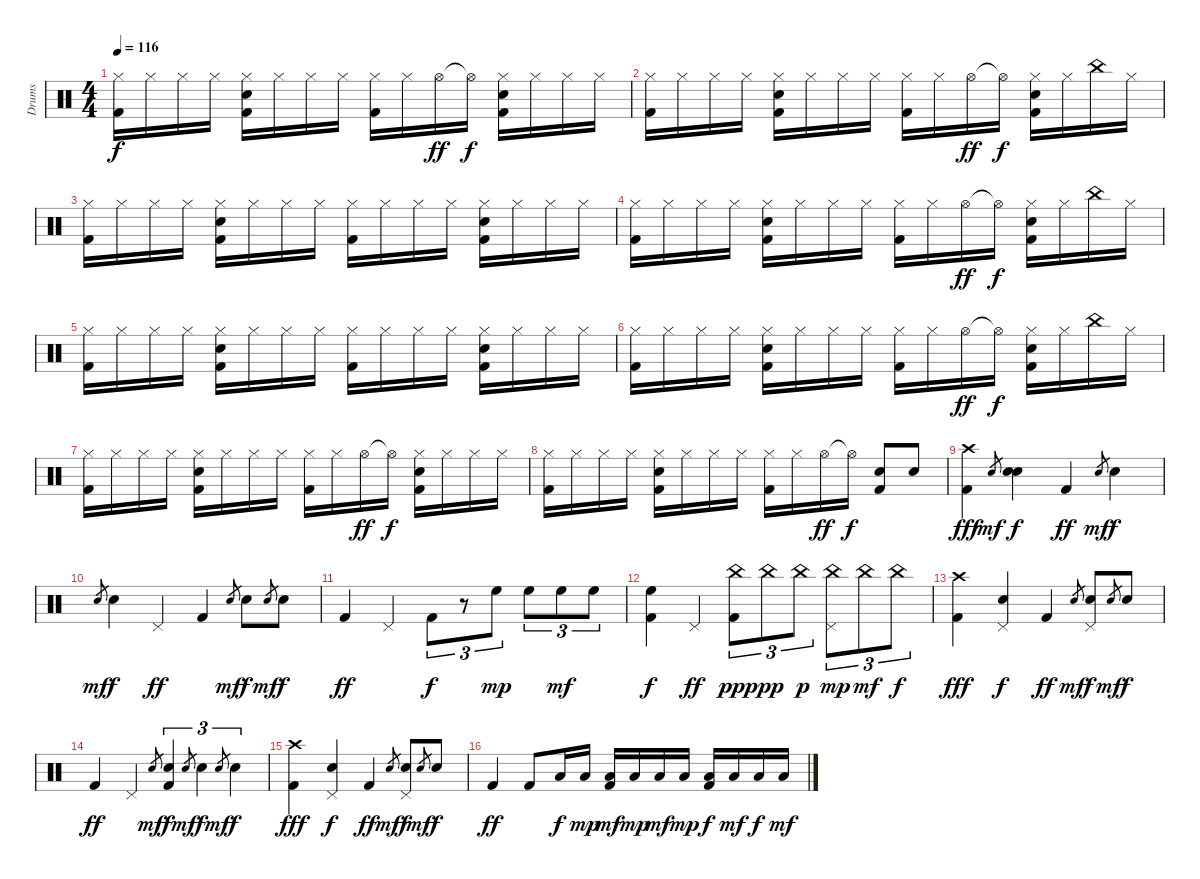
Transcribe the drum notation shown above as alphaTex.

\track ("Drums" "Drums") {instrument percussion}
\staff {score}
\articulation defaults
\ts (4 4)
\tempo 116
\clef neutral
\ks c
("Hi-Hat (closed)" "Kick (hit) 2").16{dy f} "Hi-Hat (closed)".16 "Hi-Hat (closed)".16 "Hi-Hat (closed)".16 ("Hi-Hat (closed)" "Snare (hit) 2" "Kick (hit) 2").16 "Hi-Hat (closed)".16 "Hi-Hat (closed)".16 "Hi-Hat (closed)".16 ("Hi-Hat (closed)" "Kick (hit) 2").16 "Hi-Hat (closed)".16 "Hi-Hat (open)".16{dy ff} "Hi-Hat (open)"{t}.16{dy f} ("Hi-Hat (closed)" "Snare (hit) 2" "Kick (hit) 2").16 "Hi-Hat (closed)".16 "Hi-Hat (closed)".16 "Hi-Hat (closed)".16 |
("Hi-Hat (closed)" "Kick (hit) 2").16 "Hi-Hat (closed)".16 "Hi-Hat (closed)".16 "Hi-Hat (closed)".16 ("Hi-Hat (closed)" "Snare (hit) 2" "Kick (hit) 2").16 "Hi-Hat (closed)".16 "Hi-Hat (closed)".16 "Hi-Hat (closed)".16 ("Hi-Hat (closed)" "Kick (hit) 2").16 "Hi-Hat (closed)".16 "Hi-Hat (open)".16{dy ff} "Hi-Hat (open)"{t}.16{dy f} ("Hi-Hat (closed)" "Snare (hit) 2" "Kick (hit) 2").16 "Hi-Hat (closed)".16 "China (hit)".16 "Hi-Hat (closed)".16 |
("Hi-Hat (closed)" "Kick (hit) 2").16 "Hi-Hat (closed)".16 "Hi-Hat (closed)".16 "Hi-Hat (closed)".16 ("Hi-Hat (closed)" "Snare (hit) 2" "Kick (hit) 2").16 "Hi-Hat (closed)".16 "Hi-Hat (closed)".16 "Hi-Hat (closed)".16 ("Hi-Hat (closed)" "Kick (hit) 2").16 "Hi-Hat (closed)".16 "Hi-Hat (closed)".16 "Hi-Hat (closed)".16 ("Hi-Hat (closed)" "Snare (hit) 2" "Kick (hit) 2").16 "Hi-Hat (closed)".16 "Hi-Hat (closed)".16 "Hi-Hat (closed)".16 |
("Hi-Hat (closed)" "Kick (hit) 2").16 "Hi-Hat (closed)".16 "Hi-Hat (closed)".16 "Hi-Hat (closed)".16 ("Hi-Hat (closed)" "Snare (hit) 2" "Kick (hit) 2").16 "Hi-Hat (closed)".16 "Hi-Hat (closed)".16 "Hi-Hat (closed)".16 ("Hi-Hat (closed)" "Kick (hit) 2").16 "Hi-Hat (closed)".16 "Hi-Hat (open)".16{dy ff} "Hi-Hat (open)"{t}.16{dy f} ("Hi-Hat (closed)" "Snare (hit) 2" "Kick (hit) 2").16 "Hi-Hat (closed)".16 "China (hit)".16 "Hi-Hat (closed)".16 |
("Hi-Hat (closed)" "Kick (hit) 2").16 "Hi-Hat (closed)".16 "Hi-Hat (closed)".16 "Hi-Hat (closed)".16 ("Hi-Hat (closed)" "Snare (hit) 2" "Kick (hit) 2").16 "Hi-Hat (closed)".16 "Hi-Hat (closed)".16 "Hi-Hat (closed)".16 ("Hi-Hat (closed)" "Kick (hit) 2").16 "Hi-Hat (closed)".16 "Hi-Hat (closed)".16 "Hi-Hat (closed)".16 ("Hi-Hat (closed)" "Snare (hit) 2" "Kick (hit) 2").16 "Hi-Hat (closed)".16 "Hi-Hat (closed)".16 "Hi-Hat (closed)".16 |
("Hi-Hat (closed)" "Kick (hit) 2").16 "Hi-Hat (closed)".16 "Hi-Hat (closed)".16 "Hi-Hat (closed)".16 ("Hi-Hat (closed)" "Snare (hit) 2" "Kick (hit) 2").16 "Hi-Hat (closed)".16 "Hi-Hat (closed)".16 "Hi-Hat (closed)".16 ("Hi-Hat (closed)" "Kick (hit) 2").16 "Hi-Hat (closed)".16 "Hi-Hat (open)".16{dy ff} "Hi-Hat (open)"{t}.16{dy f} ("Hi-Hat (closed)" "Snare (hit) 2" "Kick (hit) 2").16 "Hi-Hat (closed)".16 "China (hit)".16 "Hi-Hat (closed)".16 |
("Hi-Hat (closed)" "Kick (hit) 2").16 "Hi-Hat (closed)".16 "Hi-Hat (closed)".16 "Hi-Hat (closed)".16 ("Hi-Hat (closed)" "Snare (hit) 2" "Kick (hit) 2").16 "Hi-Hat (closed)".16 "Hi-Hat (closed)".16 "Hi-Hat (closed)".16 ("Hi-Hat (closed)" "Kick (hit) 2").16 "Hi-Hat (closed)".16 "Hi-Hat (open)".16{dy ff} "Hi-Hat (open)"{t}.16{dy f} ("Hi-Hat (closed)" "Snare (hit) 2" "Kick (hit) 2").16 "Hi-Hat (closed)".16 "Hi-Hat (closed)".16 "Hi-Hat (closed)".16 |
("Hi-Hat (closed)" "Kick (hit) 2").16 "Hi-Hat (closed)".16 "Hi-Hat (closed)".16 "Hi-Hat (closed)".16 ("Hi-Hat (closed)" "Snare (hit) 2" "Kick (hit) 2").16 "Hi-Hat (closed)".16 "Hi-Hat (closed)".16 "Hi-Hat (closed)".16 ("Hi-Hat (closed)" "Kick (hit) 2").16 "Hi-Hat (closed)".16 "Hi-Hat (open)".16{dy ff} "Hi-Hat (open)"{t}.16{dy f} ("Snare (hit) 2" "Kick (hit) 2").8 "Snare (hit) 2".8 |
("Crash high (hit)" "Kick (hit) 2").4{dy fff} "Snare (hit)".8{gr dy mf} ("Snare (hit)" "Snare (hit) 2").4{dy f} "Kick (hit) 2".4{dy ff} "Snare (hit)".8{gr dy mf} "Snare (hit) 2".4{dy f} |
"Snare (hit)".8{gr dy mf} "Snare (hit) 2".4{dy f} "Pedal Hi-Hat (hit)".4{dy ff} "Kick (hit) 2".4 "Snare (hit)".8{gr dy mf} "Snare (hit) 2".8{dy f} "Snare (hit)".8{gr dy mf} "Snare (hit) 2".8{dy f} |
"Kick (hit) 2".4{dy ff} "Pedal Hi-Hat (hit)".4 "Kick (hit) 2".8{tu (3 2) dy f} r.8{tu (3 2)} "High Floor Tom (hit)".8{tu (3 2) dy mp} "High Floor Tom (hit)".8{tu (3 2)} "High Floor Tom (hit)".8{tu (3 2) dy mf} "High Floor Tom (hit)".8{tu (3 2)} |
("High Floor Tom (hit)" "Kick (hit) 2").4{dy f} "Pedal Hi-Hat (hit)".4{dy ff} ("China (hit)" "Kick (hit) 2").8{tu (3 2) dy ppp} "China (hit)".8{tu (3 2) dy pp} "China (hit)".8{tu (3 2) dy p} ("China (hit)" "Pedal Hi-Hat (hit)").8{tu (3 2) dy mp} "China (hit)".8{tu (3 2) dy mf} "China (hit)".8{tu (3 2) dy f} |
("Crash high (hit)" "Kick (hit) 2").4{dy fff} ("Snare (hit)" "Pedal Hi-Hat (hit)").4{dy f} "Kick (hit) 2".4{dy ff} "Snare (hit)".8{gr dy mf} ("Snare (hit) 2" "Pedal Hi-Hat (hit)").8{dy f} "Snare (hit)".8{gr dy mf} "Snare (hit) 2".8{dy f} |
"Kick (hit) 2".4{dy ff} "Pedal Hi-Hat (hit)".4 "Snare (hit)".8{gr dy mf} ("Snare (hit) 2" "Kick (hit) 2").4{tu (3 2) dy f} "Snare (hit)".8{gr dy mf} "Snare (hit) 2".4{tu (3 2) dy f} "Snare (hit)".8{gr dy mf} "Snare (hit) 2".4{tu (3 2) dy f} |
("Crash high (hit)" "Kick (hit) 2").4{dy fff} ("Snare (hit)" "Pedal Hi-Hat (hit)").4{dy f} "Kick (hit) 2".4{dy ff} "Snare (hit)".8{gr dy mf} ("Snare (hit) 2" "Pedal Hi-Hat (hit)").8{dy f} "Snare (hit)".8{gr dy mf} "Snare (hit) 2".8{dy f} |
"Kick (hit) 2".4{dy ff} "Kick (hit) 2".8 "Low Floor Tom (hit)".16{dy f} "Low Floor Tom (hit)".16{dy mp} ("Low Floor Tom (hit)" "Kick (hit) 2").16{dy mf} "Low Floor Tom (hit)".16{dy mp} "Low Floor Tom (hit)".16{dy mf} "Low Floor Tom (hit)".16{dy mp} ("Low Floor Tom (hit)" "Kick (hit) 2").16{dy f} "Low Floor Tom (hit)".16{dy mf} "Low Floor Tom (hit)".16{dy f} "Low Floor Tom (hit)".16{dy mf}
